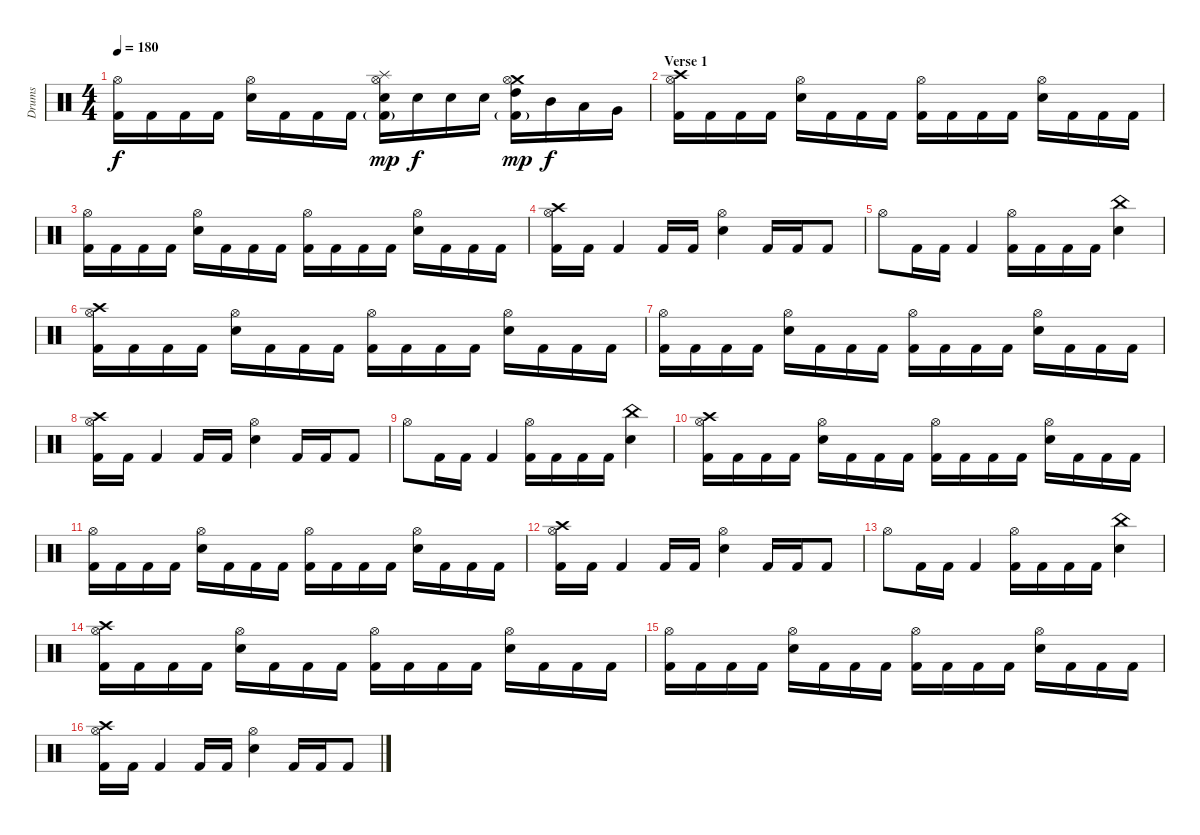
\track ("Drums" "Drums") {instrument percussion}
\staff {score}
\articulation defaults
\ts (4 4)
\tempo 180
\clef neutral
\ks c
("Hi-Hat (open)" "Kick (hit) 2").16{dy f} "Kick (hit) 2".16 "Kick (hit) 2".16 "Kick (hit) 2".16 ("Hi-Hat (open)" "Electric Snare (hit)").16 "Kick (hit) 2".16 "Kick (hit) 2".16 "Kick (hit) 2".16 ("Splash (hit)" "Hi-Hat (open)" "Electric Snare (hit)" "Kick (hit) 2"{g}).16{dy mp} "Electric Snare (hit)".16{dy f} "Electric Snare (hit)".16 "Electric Snare (hit)".16 ("Crash medium (hit)" "Hi-Hat (open)" "High Tom (hit)" "Kick (hit) 2"{g}).16{dy mp} "Mid Tom (hit)".16{dy f} "Low Tom (hit)".16 "Very Low Tom (hit)".16 |
\section ("" "Verse 1")
("Crash high (hit)" "Hi-Hat (open)" "Kick (hit) 2").16 "Kick (hit) 2".16 "Kick (hit) 2".16 "Kick (hit) 2".16 ("Hi-Hat (open)" "Electric Snare (hit)").16 "Kick (hit) 2".16 "Kick (hit) 2".16 "Kick (hit) 2".16 ("Hi-Hat (open)" "Kick (hit) 2").16 "Kick (hit) 2".16 "Kick (hit) 2".16 "Kick (hit) 2".16 ("Hi-Hat (open)" "Electric Snare (hit)").16 "Kick (hit) 2".16 "Kick (hit) 2".16 "Kick (hit) 2".16 |
("Hi-Hat (open)" "Kick (hit) 2").16 "Kick (hit) 2".16 "Kick (hit) 2".16 "Kick (hit) 2".16 ("Hi-Hat (open)" "Electric Snare (hit)").16 "Kick (hit) 2".16 "Kick (hit) 2".16 "Kick (hit) 2".16 ("Hi-Hat (open)" "Kick (hit) 2").16 "Kick (hit) 2".16 "Kick (hit) 2".16 "Kick (hit) 2".16 ("Hi-Hat (open)" "Electric Snare (hit)").16 "Kick (hit) 2".16 "Kick (hit) 2".16 "Kick (hit) 2".16 |
("Crash high (hit)" "Hi-Hat (open)" "Kick (hit) 2").16 "Kick (hit) 2".16 "Kick (hit) 2".4 "Kick (hit) 2".16 "Kick (hit) 2".16 ("Hi-Hat (open)" "Electric Snare (hit)").4 "Kick (hit) 2".16 "Kick (hit) 2".16 "Kick (hit) 2".8 |
"Hi-Hat (open)".8 "Kick (hit) 2".16 "Kick (hit) 2".16 "Kick (hit) 2".4 ("Hi-Hat (open)" "Kick (hit) 2").16 "Kick (hit) 2".16 "Kick (hit) 2".16 "Kick (hit) 2".16 ("China (hit)" "Electric Snare (hit)").4 |
("Crash high (hit)" "Hi-Hat (open)" "Kick (hit) 2").16 "Kick (hit) 2".16 "Kick (hit) 2".16 "Kick (hit) 2".16 ("Hi-Hat (open)" "Electric Snare (hit)").16 "Kick (hit) 2".16 "Kick (hit) 2".16 "Kick (hit) 2".16 ("Hi-Hat (open)" "Kick (hit) 2").16 "Kick (hit) 2".16 "Kick (hit) 2".16 "Kick (hit) 2".16 ("Hi-Hat (open)" "Electric Snare (hit)").16 "Kick (hit) 2".16 "Kick (hit) 2".16 "Kick (hit) 2".16 |
("Hi-Hat (open)" "Kick (hit) 2").16 "Kick (hit) 2".16 "Kick (hit) 2".16 "Kick (hit) 2".16 ("Hi-Hat (open)" "Electric Snare (hit)").16 "Kick (hit) 2".16 "Kick (hit) 2".16 "Kick (hit) 2".16 ("Hi-Hat (open)" "Kick (hit) 2").16 "Kick (hit) 2".16 "Kick (hit) 2".16 "Kick (hit) 2".16 ("Hi-Hat (open)" "Electric Snare (hit)").16 "Kick (hit) 2".16 "Kick (hit) 2".16 "Kick (hit) 2".16 |
("Crash high (hit)" "Hi-Hat (open)" "Kick (hit) 2").16 "Kick (hit) 2".16 "Kick (hit) 2".4 "Kick (hit) 2".16 "Kick (hit) 2".16 ("Hi-Hat (open)" "Electric Snare (hit)").4 "Kick (hit) 2".16 "Kick (hit) 2".16 "Kick (hit) 2".8 |
"Hi-Hat (open)".8 "Kick (hit) 2".16 "Kick (hit) 2".16 "Kick (hit) 2".4 ("Hi-Hat (open)" "Kick (hit) 2").16 "Kick (hit) 2".16 "Kick (hit) 2".16 "Kick (hit) 2".16 ("China (hit)" "Electric Snare (hit)").4 |
("Crash high (hit)" "Hi-Hat (open)" "Kick (hit) 2").16 "Kick (hit) 2".16 "Kick (hit) 2".16 "Kick (hit) 2".16 ("Hi-Hat (open)" "Electric Snare (hit)").16 "Kick (hit) 2".16 "Kick (hit) 2".16 "Kick (hit) 2".16 ("Hi-Hat (open)" "Kick (hit) 2").16 "Kick (hit) 2".16 "Kick (hit) 2".16 "Kick (hit) 2".16 ("Hi-Hat (open)" "Electric Snare (hit)").16 "Kick (hit) 2".16 "Kick (hit) 2".16 "Kick (hit) 2".16 |
("Hi-Hat (open)" "Kick (hit) 2").16 "Kick (hit) 2".16 "Kick (hit) 2".16 "Kick (hit) 2".16 ("Hi-Hat (open)" "Electric Snare (hit)").16 "Kick (hit) 2".16 "Kick (hit) 2".16 "Kick (hit) 2".16 ("Hi-Hat (open)" "Kick (hit) 2").16 "Kick (hit) 2".16 "Kick (hit) 2".16 "Kick (hit) 2".16 ("Hi-Hat (open)" "Electric Snare (hit)").16 "Kick (hit) 2".16 "Kick (hit) 2".16 "Kick (hit) 2".16 |
("Crash high (hit)" "Hi-Hat (open)" "Kick (hit) 2").16 "Kick (hit) 2".16 "Kick (hit) 2".4 "Kick (hit) 2".16 "Kick (hit) 2".16 ("Hi-Hat (open)" "Electric Snare (hit)").4 "Kick (hit) 2".16 "Kick (hit) 2".16 "Kick (hit) 2".8 |
"Hi-Hat (open)".8 "Kick (hit) 2".16 "Kick (hit) 2".16 "Kick (hit) 2".4 ("Hi-Hat (open)" "Kick (hit) 2").16 "Kick (hit) 2".16 "Kick (hit) 2".16 "Kick (hit) 2".16 ("China (hit)" "Electric Snare (hit)").4 |
("Crash high (hit)" "Hi-Hat (open)" "Kick (hit) 2").16 "Kick (hit) 2".16 "Kick (hit) 2".16 "Kick (hit) 2".16 ("Hi-Hat (open)" "Electric Snare (hit)").16 "Kick (hit) 2".16 "Kick (hit) 2".16 "Kick (hit) 2".16 ("Hi-Hat (open)" "Kick (hit) 2").16 "Kick (hit) 2".16 "Kick (hit) 2".16 "Kick (hit) 2".16 ("Hi-Hat (open)" "Electric Snare (hit)").16 "Kick (hit) 2".16 "Kick (hit) 2".16 "Kick (hit) 2".16 |
("Hi-Hat (open)" "Kick (hit) 2").16 "Kick (hit) 2".16 "Kick (hit) 2".16 "Kick (hit) 2".16 ("Hi-Hat (open)" "Electric Snare (hit)").16 "Kick (hit) 2".16 "Kick (hit) 2".16 "Kick (hit) 2".16 ("Hi-Hat (open)" "Kick (hit) 2").16 "Kick (hit) 2".16 "Kick (hit) 2".16 "Kick (hit) 2".16 ("Hi-Hat (open)" "Electric Snare (hit)").16 "Kick (hit) 2".16 "Kick (hit) 2".16 "Kick (hit) 2".16 |
("Crash high (hit)" "Hi-Hat (open)" "Kick (hit) 2").16 "Kick (hit) 2".16 "Kick (hit) 2".4 "Kick (hit) 2".16 "Kick (hit) 2".16 ("Hi-Hat (open)" "Electric Snare (hit)").4 "Kick (hit) 2".16 "Kick (hit) 2".16 "Kick (hit) 2".8
